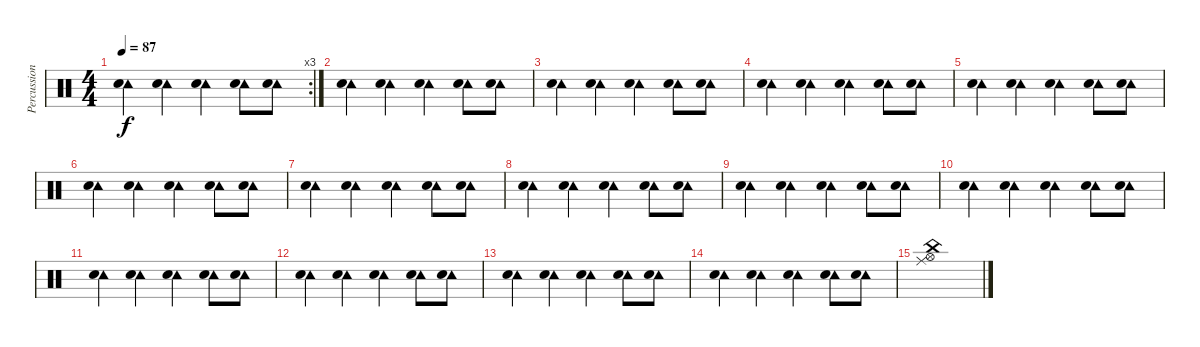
\track ("Percussion" "Percussion") {instrument percussion}
\staff {score}
\articulation defaults
\rc 3
\ts (4 4)
\tempo 87
\clef neutral
\ks c
("Tambourine (hit)" "Snare (hit) 2").4{dy f} ("Tambourine (hit)" "Snare (hit) 2").4 ("Tambourine (hit)" "Snare (hit) 2").4 ("Tambourine (hit)" "Snare (hit) 2").8 ("Tambourine (hit)" "Snare (hit) 2").8 |
("Tambourine (hit)" "Snare (hit) 2").4 ("Tambourine (hit)" "Snare (hit) 2").4 ("Tambourine (hit)" "Snare (hit) 2").4 ("Tambourine (hit)" "Snare (hit) 2").8 ("Tambourine (hit)" "Snare (hit) 2").8 |
("Tambourine (hit)" "Snare (hit) 2").4 ("Tambourine (hit)" "Snare (hit) 2").4 ("Tambourine (hit)" "Snare (hit) 2").4 ("Tambourine (hit)" "Snare (hit) 2").8 ("Tambourine (hit)" "Snare (hit) 2").8 |
("Tambourine (hit)" "Snare (hit) 2").4 ("Tambourine (hit)" "Snare (hit) 2").4 ("Tambourine (hit)" "Snare (hit) 2").4 ("Tambourine (hit)" "Snare (hit) 2").8 ("Tambourine (hit)" "Snare (hit) 2").8 |
("Tambourine (hit)" "Snare (hit) 2").4 ("Tambourine (hit)" "Snare (hit) 2").4 ("Tambourine (hit)" "Snare (hit) 2").4 ("Tambourine (hit)" "Snare (hit) 2").8 ("Tambourine (hit)" "Snare (hit) 2").8 |
("Tambourine (hit)" "Snare (hit) 2").4 ("Tambourine (hit)" "Snare (hit) 2").4 ("Tambourine (hit)" "Snare (hit) 2").4 ("Tambourine (hit)" "Snare (hit) 2").8 ("Tambourine (hit)" "Snare (hit) 2").8 |
("Tambourine (hit)" "Snare (hit) 2").4 ("Tambourine (hit)" "Snare (hit) 2").4 ("Tambourine (hit)" "Snare (hit) 2").4 ("Tambourine (hit)" "Snare (hit) 2").8 ("Tambourine (hit)" "Snare (hit) 2").8 |
("Tambourine (hit)" "Snare (hit) 2").4 ("Tambourine (hit)" "Snare (hit) 2").4 ("Tambourine (hit)" "Snare (hit) 2").4 ("Tambourine (hit)" "Snare (hit) 2").8 ("Tambourine (hit)" "Snare (hit) 2").8 |
("Tambourine (hit)" "Snare (hit) 2").4 ("Tambourine (hit)" "Snare (hit) 2").4 ("Tambourine (hit)" "Snare (hit) 2").4 ("Tambourine (hit)" "Snare (hit) 2").8 ("Tambourine (hit)" "Snare (hit) 2").8 |
("Tambourine (hit)" "Snare (hit) 2").4 ("Tambourine (hit)" "Snare (hit) 2").4 ("Tambourine (hit)" "Snare (hit) 2").4 ("Tambourine (hit)" "Snare (hit) 2").8 ("Tambourine (hit)" "Snare (hit) 2").8 |
("Tambourine (hit)" "Snare (hit) 2").4 ("Tambourine (hit)" "Snare (hit) 2").4 ("Tambourine (hit)" "Snare (hit) 2").4 ("Tambourine (hit)" "Snare (hit) 2").8 ("Tambourine (hit)" "Snare (hit) 2").8 |
("Tambourine (hit)" "Snare (hit) 2").4 ("Tambourine (hit)" "Snare (hit) 2").4 ("Tambourine (hit)" "Snare (hit) 2").4 ("Tambourine (hit)" "Snare (hit) 2").8 ("Tambourine (hit)" "Snare (hit) 2").8 |
("Tambourine (hit)" "Snare (hit) 2").4 ("Tambourine (hit)" "Snare (hit) 2").4 ("Tambourine (hit)" "Snare (hit) 2").4 ("Tambourine (hit)" "Snare (hit) 2").8 ("Tambourine (hit)" "Snare (hit) 2").8 |
("Tambourine (hit)" "Snare (hit) 2").4 ("Tambourine (hit)" "Snare (hit) 2").4 ("Tambourine (hit)" "Snare (hit) 2").4 ("Tambourine (hit)" "Snare (hit) 2").8 ("Tambourine (hit)" "Snare (hit) 2").8 |
("China (hit)" "Hi-Hat (open)" "Ride (middle)").1
